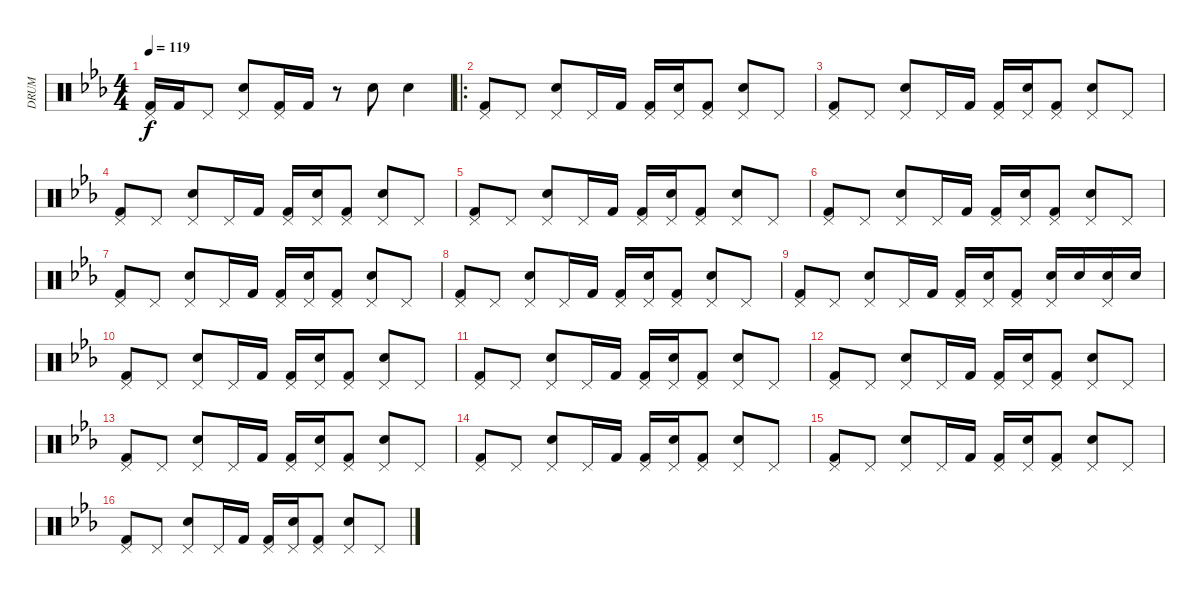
\track ("DRUM" "DRUM") {instrument percussion}
\staff {score}
\articulation defaults
\ts (4 4)
\tempo 119
\clef neutral
\ks eb
("Pedal Hi-Hat (hit)" "Kick (hit) 2").16{dy f} "Kick (hit) 2".16 "Pedal Hi-Hat (hit)".8 ("Pedal Hi-Hat (hit)" "Electric Snare (hit)").8 ("Pedal Hi-Hat (hit)" "Kick (hit) 2").16 "Kick (hit) 2".16 r.8 "Electric Snare (hit)".8 "Electric Snare (hit)".4 |
\ro
("Pedal Hi-Hat (hit)" "Kick (hit) 2").8 "Pedal Hi-Hat (hit)".8 ("Pedal Hi-Hat (hit)" "Electric Snare (hit)").8 "Pedal Hi-Hat (hit)".16 "Kick (hit) 2".16 ("Pedal Hi-Hat (hit)" "Kick (hit) 2").16 ("Pedal Hi-Hat (hit)" "Electric Snare (hit)").16 ("Pedal Hi-Hat (hit)" "Kick (hit) 2").8 ("Pedal Hi-Hat (hit)" "Electric Snare (hit)").8 "Pedal Hi-Hat (hit)".8 |
("Pedal Hi-Hat (hit)" "Kick (hit) 2").8 "Pedal Hi-Hat (hit)".8 ("Pedal Hi-Hat (hit)" "Electric Snare (hit)").8 "Pedal Hi-Hat (hit)".16 "Kick (hit) 2".16 ("Pedal Hi-Hat (hit)" "Kick (hit) 2").16 ("Pedal Hi-Hat (hit)" "Electric Snare (hit)").16 ("Pedal Hi-Hat (hit)" "Kick (hit) 2").8 ("Pedal Hi-Hat (hit)" "Electric Snare (hit)").8 "Pedal Hi-Hat (hit)".8 |
("Pedal Hi-Hat (hit)" "Kick (hit) 2").8 "Pedal Hi-Hat (hit)".8 ("Pedal Hi-Hat (hit)" "Electric Snare (hit)").8 "Pedal Hi-Hat (hit)".16 "Kick (hit) 2".16 ("Pedal Hi-Hat (hit)" "Kick (hit) 2").16 ("Pedal Hi-Hat (hit)" "Electric Snare (hit)").16 ("Pedal Hi-Hat (hit)" "Kick (hit) 2").8 ("Pedal Hi-Hat (hit)" "Electric Snare (hit)").8 "Pedal Hi-Hat (hit)".8 |
("Pedal Hi-Hat (hit)" "Kick (hit) 2").8 "Pedal Hi-Hat (hit)".8 ("Pedal Hi-Hat (hit)" "Electric Snare (hit)").8 "Pedal Hi-Hat (hit)".16 "Kick (hit) 2".16 ("Pedal Hi-Hat (hit)" "Kick (hit) 2").16 ("Pedal Hi-Hat (hit)" "Electric Snare (hit)").16 ("Pedal Hi-Hat (hit)" "Kick (hit) 2").8 ("Pedal Hi-Hat (hit)" "Electric Snare (hit)").8 "Pedal Hi-Hat (hit)".8 |
("Pedal Hi-Hat (hit)" "Kick (hit) 2").8 "Pedal Hi-Hat (hit)".8 ("Pedal Hi-Hat (hit)" "Electric Snare (hit)").8 "Pedal Hi-Hat (hit)".16 "Kick (hit) 2".16 ("Pedal Hi-Hat (hit)" "Kick (hit) 2").16 ("Pedal Hi-Hat (hit)" "Electric Snare (hit)").16 ("Pedal Hi-Hat (hit)" "Kick (hit) 2").8 ("Pedal Hi-Hat (hit)" "Electric Snare (hit)").8 "Pedal Hi-Hat (hit)".8 |
("Pedal Hi-Hat (hit)" "Kick (hit) 2").8 "Pedal Hi-Hat (hit)".8 ("Pedal Hi-Hat (hit)" "Electric Snare (hit)").8 "Pedal Hi-Hat (hit)".16 "Kick (hit) 2".16 ("Pedal Hi-Hat (hit)" "Kick (hit) 2").16 ("Pedal Hi-Hat (hit)" "Electric Snare (hit)").16 ("Pedal Hi-Hat (hit)" "Kick (hit) 2").8 ("Pedal Hi-Hat (hit)" "Electric Snare (hit)").8 "Pedal Hi-Hat (hit)".8 |
("Pedal Hi-Hat (hit)" "Kick (hit) 2").8 "Pedal Hi-Hat (hit)".8 ("Pedal Hi-Hat (hit)" "Electric Snare (hit)").8 "Pedal Hi-Hat (hit)".16 "Kick (hit) 2".16 ("Pedal Hi-Hat (hit)" "Kick (hit) 2").16 ("Pedal Hi-Hat (hit)" "Electric Snare (hit)").16 ("Pedal Hi-Hat (hit)" "Kick (hit) 2").8 ("Pedal Hi-Hat (hit)" "Electric Snare (hit)").8 "Pedal Hi-Hat (hit)".8 |
("Pedal Hi-Hat (hit)" "Kick (hit) 2").8 "Pedal Hi-Hat (hit)".8 ("Pedal Hi-Hat (hit)" "Electric Snare (hit)").8 "Pedal Hi-Hat (hit)".16 "Kick (hit) 2".16 ("Pedal Hi-Hat (hit)" "Kick (hit) 2").16 ("Pedal Hi-Hat (hit)" "Electric Snare (hit)").16 ("Pedal Hi-Hat (hit)" "Kick (hit) 2").8 ("Pedal Hi-Hat (hit)" "Electric Snare (hit)").16 "Electric Snare (hit)".16 ("Pedal Hi-Hat (hit)" "Electric Snare (hit)").16 "Electric Snare (hit)".16 |
("Pedal Hi-Hat (hit)" "Kick (hit) 2").8 "Pedal Hi-Hat (hit)".8 ("Pedal Hi-Hat (hit)" "Electric Snare (hit)").8 "Pedal Hi-Hat (hit)".16 "Kick (hit) 2".16 ("Pedal Hi-Hat (hit)" "Kick (hit) 2").16 ("Pedal Hi-Hat (hit)" "Electric Snare (hit)").16 ("Pedal Hi-Hat (hit)" "Kick (hit) 2").8 ("Pedal Hi-Hat (hit)" "Electric Snare (hit)").8 "Pedal Hi-Hat (hit)".8 |
("Pedal Hi-Hat (hit)" "Kick (hit) 2").8 "Pedal Hi-Hat (hit)".8 ("Pedal Hi-Hat (hit)" "Electric Snare (hit)").8 "Pedal Hi-Hat (hit)".16 "Kick (hit) 2".16 ("Pedal Hi-Hat (hit)" "Kick (hit) 2").16 ("Pedal Hi-Hat (hit)" "Electric Snare (hit)").16 ("Pedal Hi-Hat (hit)" "Kick (hit) 2").8 ("Pedal Hi-Hat (hit)" "Electric Snare (hit)").8 "Pedal Hi-Hat (hit)".8 |
("Pedal Hi-Hat (hit)" "Kick (hit) 2").8 "Pedal Hi-Hat (hit)".8 ("Pedal Hi-Hat (hit)" "Electric Snare (hit)").8 "Pedal Hi-Hat (hit)".16 "Kick (hit) 2".16 ("Pedal Hi-Hat (hit)" "Kick (hit) 2").16 ("Pedal Hi-Hat (hit)" "Electric Snare (hit)").16 ("Pedal Hi-Hat (hit)" "Kick (hit) 2").8 ("Pedal Hi-Hat (hit)" "Electric Snare (hit)").8 "Pedal Hi-Hat (hit)".8 |
("Pedal Hi-Hat (hit)" "Kick (hit) 2").8 "Pedal Hi-Hat (hit)".8 ("Pedal Hi-Hat (hit)" "Electric Snare (hit)").8 "Pedal Hi-Hat (hit)".16 "Kick (hit) 2".16 ("Pedal Hi-Hat (hit)" "Kick (hit) 2").16 ("Pedal Hi-Hat (hit)" "Electric Snare (hit)").16 ("Pedal Hi-Hat (hit)" "Kick (hit) 2").8 ("Pedal Hi-Hat (hit)" "Electric Snare (hit)").8 "Pedal Hi-Hat (hit)".8 |
("Pedal Hi-Hat (hit)" "Kick (hit) 2").8 "Pedal Hi-Hat (hit)".8 ("Pedal Hi-Hat (hit)" "Electric Snare (hit)").8 "Pedal Hi-Hat (hit)".16 "Kick (hit) 2".16 ("Pedal Hi-Hat (hit)" "Kick (hit) 2").16 ("Pedal Hi-Hat (hit)" "Electric Snare (hit)").16 ("Pedal Hi-Hat (hit)" "Kick (hit) 2").8 ("Pedal Hi-Hat (hit)" "Electric Snare (hit)").8 "Pedal Hi-Hat (hit)".8 |
("Pedal Hi-Hat (hit)" "Kick (hit) 2").8 "Pedal Hi-Hat (hit)".8 ("Pedal Hi-Hat (hit)" "Electric Snare (hit)").8 "Pedal Hi-Hat (hit)".16 "Kick (hit) 2".16 ("Pedal Hi-Hat (hit)" "Kick (hit) 2").16 ("Pedal Hi-Hat (hit)" "Electric Snare (hit)").16 ("Pedal Hi-Hat (hit)" "Kick (hit) 2").8 ("Pedal Hi-Hat (hit)" "Electric Snare (hit)").8 "Pedal Hi-Hat (hit)".8 |
("Pedal Hi-Hat (hit)" "Kick (hit) 2").8 "Pedal Hi-Hat (hit)".8 ("Pedal Hi-Hat (hit)" "Electric Snare (hit)").8 "Pedal Hi-Hat (hit)".16 "Kick (hit) 2".16 ("Pedal Hi-Hat (hit)" "Kick (hit) 2").16 ("Pedal Hi-Hat (hit)" "Electric Snare (hit)").16 ("Pedal Hi-Hat (hit)" "Kick (hit) 2").8 ("Pedal Hi-Hat (hit)" "Electric Snare (hit)").8 "Pedal Hi-Hat (hit)".8
